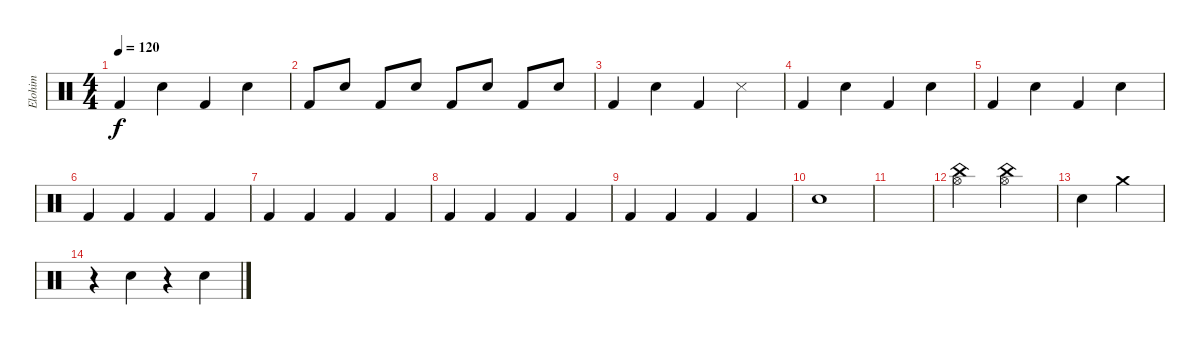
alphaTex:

\track ("Elohim" "Elohim") {instrument percussion}
\staff {score}
\articulation defaults
\ts (4 4)
\tempo 120
\clef neutral
\ks c "Kick (hit) 2".4{dy f} "Snare (hit) 2".4 "Kick (hit) 2".4 "Snare (hit) 2".4
|
"Kick (hit) 2".8 "Snare (hit) 2".8 "Kick (hit) 2".8 "Snare (hit) 2".8 "Kick (hit) 2".8 "Snare (hit) 2".8 "Kick (hit) 2".8 "Snare (hit) 2".8 |
"Kick (hit) 2".4 "Snare (hit) 2".4 "Kick (hit) 2".4 "Snare (side stick) 3".4 |
"Kick (hit) 2".4 "Snare (hit) 2".4 "Kick (hit) 2".4 "Snare (hit) 2".4 |
"Kick (hit) 2".4 "Snare (hit) 2".4 "Kick (hit) 2".4 "Snare (hit) 2".4 |
"Kick (hit) 2".4 "Kick (hit) 2".4 "Kick (hit) 2".4 "Kick (hit) 2".4 |
"Kick (hit) 2".4 "Kick (hit) 2".4 "Kick (hit) 2".4 "Kick (hit) 2".4 |
"Kick (hit) 2".4 "Kick (hit) 2".4 "Kick (hit) 2".4 "Kick (hit) 2".4 |
"Kick (hit) 2".4 "Kick (hit) 2".4 "Kick (hit) 2".4 "Kick (hit) 2".4 |
"Snare (hit) 2".1 |
|
("China (hit)" "Hi-Hat (open)").2 ("China (hit)" "Hi-Hat (open)").2 |
"Snare (hit) 2".4 "Crash medium (hit)".4 |
r.4 "Snare (hit) 2".4 r.4 "Snare (hit) 2".4
